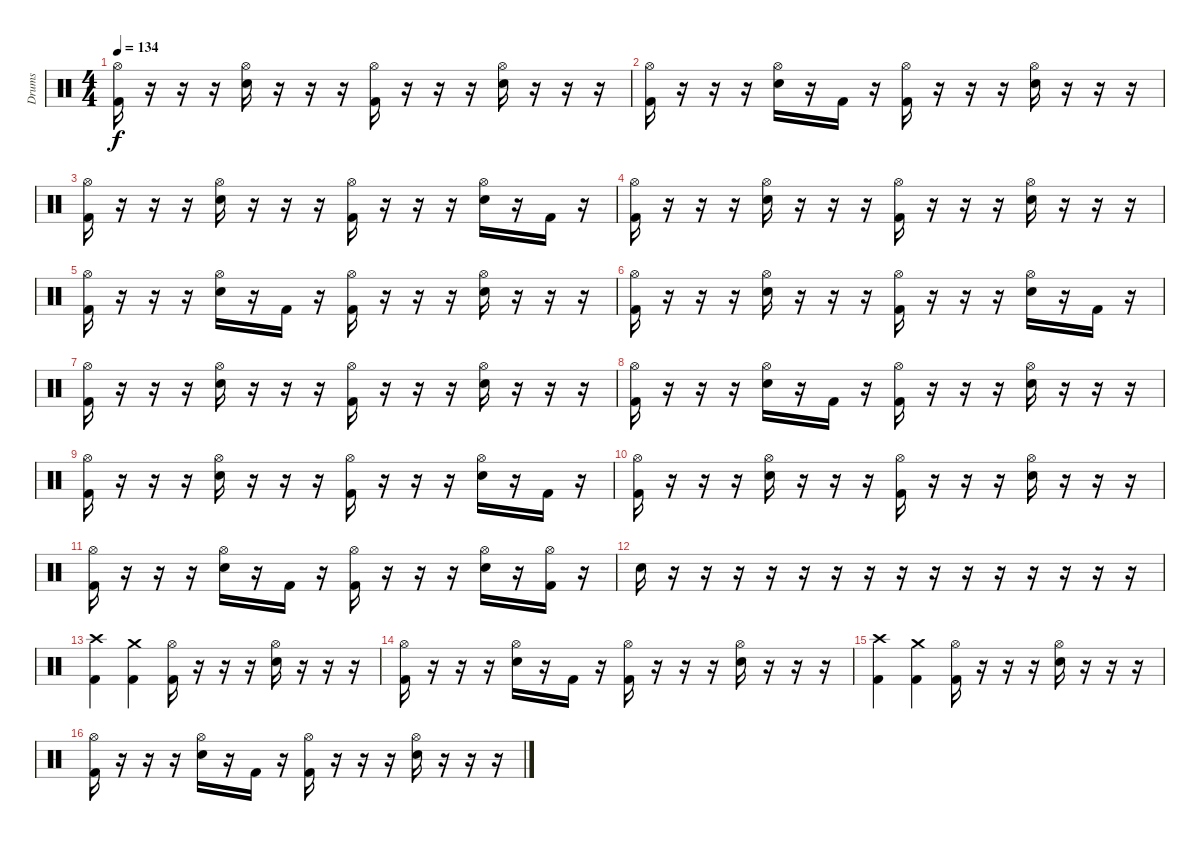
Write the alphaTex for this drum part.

\track ("Drums" "Drums") {instrument percussion}
\staff {score}
\articulation defaults
\ts (4 4)
\tempo 134
\clef neutral
\ks c
("Kick (hit) 2" "Hi-Hat (open)").16{dy f} r.16 r.16 r.16 ("Snare (hit) 2" "Hi-Hat (open)").16 r.16 r.16 r.16 ("Kick (hit) 2" "Hi-Hat (open)").16 r.16 r.16 r.16 ("Snare (hit) 2" "Hi-Hat (open)").16 r.16 r.16 r.16 |
("Kick (hit) 2" "Hi-Hat (open)").16 r.16 r.16 r.16 ("Snare (hit) 2" "Hi-Hat (open)").16 r.16 "Kick (hit) 2".16 r.16 ("Kick (hit) 2" "Hi-Hat (open)").16 r.16 r.16 r.16 ("Snare (hit) 2" "Hi-Hat (open)").16 r.16 r.16 r.16 |
("Kick (hit) 2" "Hi-Hat (open)").16 r.16 r.16 r.16 ("Snare (hit) 2" "Hi-Hat (open)").16 r.16 r.16 r.16 ("Kick (hit) 2" "Hi-Hat (open)").16 r.16 r.16 r.16 ("Snare (hit) 2" "Hi-Hat (open)").16 r.16 "Kick (hit) 2".16 r.16 |
("Kick (hit) 2" "Hi-Hat (open)").16 r.16 r.16 r.16 ("Snare (hit) 2" "Hi-Hat (open)").16 r.16 r.16 r.16 ("Kick (hit) 2" "Hi-Hat (open)").16 r.16 r.16 r.16 ("Snare (hit) 2" "Hi-Hat (open)").16 r.16 r.16 r.16 |
("Kick (hit) 2" "Hi-Hat (open)").16 r.16 r.16 r.16 ("Snare (hit) 2" "Hi-Hat (open)").16 r.16 "Kick (hit) 2".16 r.16 ("Kick (hit) 2" "Hi-Hat (open)").16 r.16 r.16 r.16 ("Snare (hit) 2" "Hi-Hat (open)").16 r.16 r.16 r.16 |
("Kick (hit) 2" "Hi-Hat (open)").16 r.16 r.16 r.16 ("Snare (hit) 2" "Hi-Hat (open)").16 r.16 r.16 r.16 ("Kick (hit) 2" "Hi-Hat (open)").16 r.16 r.16 r.16 ("Snare (hit) 2" "Hi-Hat (open)").16 r.16 "Kick (hit) 2".16 r.16 |
("Kick (hit) 2" "Hi-Hat (open)").16 r.16 r.16 r.16 ("Snare (hit) 2" "Hi-Hat (open)").16 r.16 r.16 r.16 ("Kick (hit) 2" "Hi-Hat (open)").16 r.16 r.16 r.16 ("Snare (hit) 2" "Hi-Hat (open)").16 r.16 r.16 r.16 |
("Kick (hit) 2" "Hi-Hat (open)").16 r.16 r.16 r.16 ("Snare (hit) 2" "Hi-Hat (open)").16 r.16 "Kick (hit) 2".16 r.16 ("Kick (hit) 2" "Hi-Hat (open)").16 r.16 r.16 r.16 ("Snare (hit) 2" "Hi-Hat (open)").16 r.16 r.16 r.16 |
("Kick (hit) 2" "Hi-Hat (open)").16 r.16 r.16 r.16 ("Snare (hit) 2" "Hi-Hat (open)").16 r.16 r.16 r.16 ("Kick (hit) 2" "Hi-Hat (open)").16 r.16 r.16 r.16 ("Snare (hit) 2" "Hi-Hat (open)").16 r.16 "Kick (hit) 2".16 r.16 |
("Kick (hit) 2" "Hi-Hat (open)").16 r.16 r.16 r.16 ("Snare (hit) 2" "Hi-Hat (open)").16 r.16 r.16 r.16 ("Kick (hit) 2" "Hi-Hat (open)").16 r.16 r.16 r.16 ("Snare (hit) 2" "Hi-Hat (open)").16 r.16 r.16 r.16 |
("Kick (hit) 2" "Hi-Hat (open)").16 r.16 r.16 r.16 ("Snare (hit) 2" "Hi-Hat (open)").16 r.16 "Kick (hit) 2".16 r.16 ("Kick (hit) 2" "Hi-Hat (open)").16 r.16 r.16 r.16 ("Snare (hit) 2" "Hi-Hat (open)").16 r.16 ("Kick (hit) 2" "Hi-Hat (open)").16 r.16 |
"Snare (hit) 2".16 r.16 r.16 r.16 r.16 r.16 r.16 r.16 r.16 r.16 r.16 r.16 r.16 r.16 r.16 r.16 |
("Crash high (hit)" "Kick (hit) 2").4 ("Crash medium (hit)" "Kick (hit) 2").4 ("Kick (hit) 2" "Hi-Hat (open)").16 r.16 r.16 r.16 ("Snare (hit) 2" "Hi-Hat (open)").16 r.16 r.16 r.16 |
("Kick (hit) 2" "Hi-Hat (open)").16 r.16 r.16 r.16 ("Snare (hit) 2" "Hi-Hat (open)").16 r.16 "Kick (hit) 2".16 r.16 ("Kick (hit) 2" "Hi-Hat (open)").16 r.16 r.16 r.16 ("Snare (hit) 2" "Hi-Hat (open)").16 r.16 r.16 r.16 |
("Crash high (hit)" "Kick (hit) 2").4 ("Crash medium (hit)" "Kick (hit) 2").4 ("Kick (hit) 2" "Hi-Hat (open)").16 r.16 r.16 r.16 ("Snare (hit) 2" "Hi-Hat (open)").16 r.16 r.16 r.16 |
("Kick (hit) 2" "Hi-Hat (open)").16 r.16 r.16 r.16 ("Snare (hit) 2" "Hi-Hat (open)").16 r.16 "Kick (hit) 2".16 r.16 ("Kick (hit) 2" "Hi-Hat (open)").16 r.16 r.16 r.16 ("Snare (hit) 2" "Hi-Hat (open)").16 r.16 r.16 r.16
